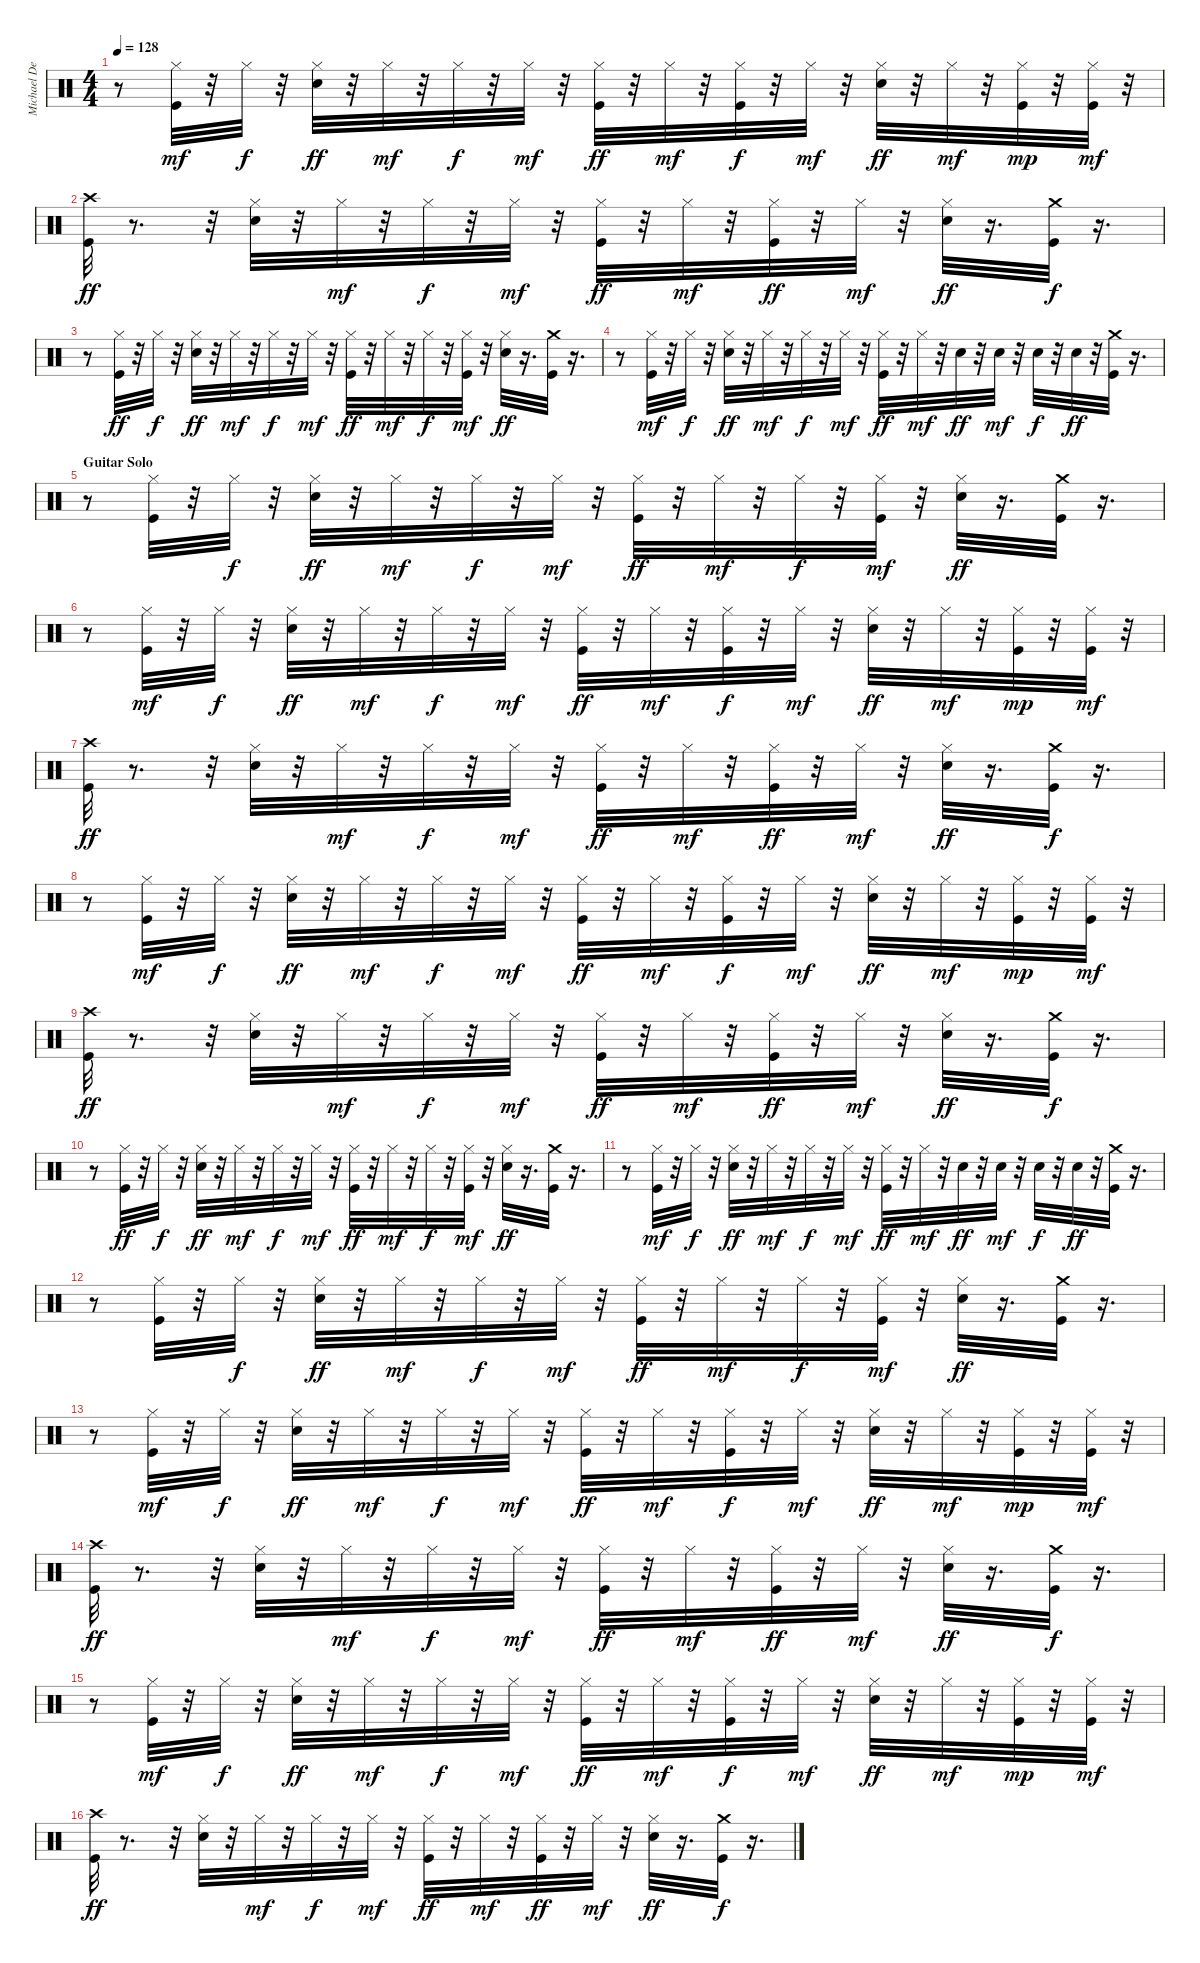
\track ("Michael DeRosier" "Michael De") {instrument percussion}
\staff {score}
\articulation defaults
\ts (4 4)
\tempo 128
\clef neutral
\ks c
r.8{dy f} ("Hi-Hat (closed)" "Kick (hit)").32{dy mf} r.32 "Hi-Hat (closed)".32{dy f} r.32 ("Snare (hit) 2" "Hi-Hat (closed)").32{dy ff} r.32 "Hi-Hat (closed)".32{dy mf} r.32 "Hi-Hat (closed)".32{dy f} r.32 "Hi-Hat (closed)".32{dy mf} r.32 ("Kick (hit)" "Hi-Hat (closed)").32{dy ff} r.32 "Hi-Hat (closed)".32{dy mf} r.32 ("Hi-Hat (closed)" "Kick (hit)").32{dy f} r.32 "Hi-Hat (closed)".32{dy mf} r.32 ("Snare (hit) 2" "Hi-Hat (closed)").32{dy ff} r.32 "Hi-Hat (closed)".32{dy mf} r.32 ("Kick (hit)" "Hi-Hat (closed)").32{dy mp} r.32 ("Hi-Hat (closed)" "Kick (hit)").32{dy mf} r.32 |
("Kick (hit)" "Crash high (hit)").32{dy ff} r.8{d} r.32 ("Snare (hit) 2" "Hi-Hat (closed)").32 r.32 "Hi-Hat (closed)".32{dy mf} r.32 "Hi-Hat (closed)".32{dy f} r.32 "Hi-Hat (closed)".32{dy mf} r.32 ("Hi-Hat (closed)" "Kick (hit)").32{dy ff} r.32 "Hi-Hat (closed)".32{dy mf} r.32 ("Hi-Hat (closed)" "Kick (hit)").32{dy ff} r.32 "Hi-Hat (closed)".32{dy mf} r.32 ("Snare (hit) 2" "Hi-Hat (closed)").32{dy ff} r.16{d} ("Kick (hit)" "Crash medium (hit)").32{dy f} r.16{d} |
r.8 ("Hi-Hat (closed)" "Kick (hit)").32{dy ff} r.32 "Hi-Hat (closed)".32{dy f} r.32 ("Snare (hit) 2" "Hi-Hat (closed)").32{dy ff} r.32 "Hi-Hat (closed)".32{dy mf} r.32 "Hi-Hat (closed)".32{dy f} r.32 "Hi-Hat (closed)".32{dy mf} r.32 ("Hi-Hat (closed)" "Kick (hit)").32{dy ff} r.32 "Hi-Hat (closed)".32{dy mf} r.32 "Hi-Hat (closed)".32{dy f} r.32 ("Kick (hit)" "Hi-Hat (closed)").32{dy mf} r.32 ("Snare (hit) 2" "Hi-Hat (closed)").32{dy ff} r.16{d} ("Kick (hit)" "Crash medium (hit)").32 r.16{d} |
r.8 ("Hi-Hat (closed)" "Kick (hit)").32{dy mf} r.32 "Hi-Hat (closed)".32{dy f} r.32 ("Snare (hit) 2" "Hi-Hat (closed)").32{dy ff} r.32 "Hi-Hat (closed)".32{dy mf} r.32 "Hi-Hat (closed)".32{dy f} r.32 "Hi-Hat (closed)".32{dy mf} r.32 ("Kick (hit)" "Hi-Hat (closed)").32{dy ff} r.32 "Hi-Hat (closed)".32{dy mf} r.32 "Snare (hit) 2".32{dy ff} r.32 "Snare (hit) 2".32{dy mf} r.32 "Snare (hit) 2".32{dy f} r.32 "Snare (hit) 2".32{dy ff} r.32 ("Kick (hit)" "Crash medium (hit)").32 r.16{d} |
\section ("" "Guitar Solo")
r.8 ("Hi-Hat (closed)" "Kick (hit)").32 r.32 "Hi-Hat (closed)".32{dy f} r.32 ("Snare (hit) 2" "Hi-Hat (closed)").32{dy ff} r.32 "Hi-Hat (closed)".32{dy mf} r.32 "Hi-Hat (closed)".32{dy f} r.32 "Hi-Hat (closed)".32{dy mf} r.32 ("Hi-Hat (closed)" "Kick (hit)").32{dy ff} r.32 "Hi-Hat (closed)".32{dy mf} r.32 "Hi-Hat (closed)".32{dy f} r.32 ("Hi-Hat (closed)" "Kick (hit)").32{dy mf} r.32 ("Snare (hit) 2" "Hi-Hat (closed)").32{dy ff} r.16{d} ("Kick (hit)" "Crash medium (hit)").32 r.16{d} |
r.8 ("Hi-Hat (closed)" "Kick (hit)").32{dy mf} r.32 "Hi-Hat (closed)".32{dy f} r.32 ("Snare (hit) 2" "Hi-Hat (closed)").32{dy ff} r.32 "Hi-Hat (closed)".32{dy mf} r.32 "Hi-Hat (closed)".32{dy f} r.32 "Hi-Hat (closed)".32{dy mf} r.32 ("Hi-Hat (closed)" "Kick (hit)").32{dy ff} r.32 "Hi-Hat (closed)".32{dy mf} r.32 ("Hi-Hat (closed)" "Kick (hit)").32{dy f} r.32 "Hi-Hat (closed)".32{dy mf} r.32 ("Snare (hit) 2" "Hi-Hat (closed)").32{dy ff} r.32 "Hi-Hat (closed)".32{dy mf} r.32 ("Kick (hit)" "Hi-Hat (closed)").32{dy mp} r.32 ("Hi-Hat (closed)" "Kick (hit)").32{dy mf} r.32 |
("Kick (hit)" "Crash high (hit)").32{dy ff} r.8{d} r.32 ("Snare (hit) 2" "Hi-Hat (closed)").32 r.32 "Hi-Hat (closed)".32{dy mf} r.32 "Hi-Hat (closed)".32{dy f} r.32 "Hi-Hat (closed)".32{dy mf} r.32 ("Hi-Hat (closed)" "Kick (hit)").32{dy ff} r.32 "Hi-Hat (closed)".32{dy mf} r.32 ("Hi-Hat (closed)" "Kick (hit)").32{dy ff} r.32 "Hi-Hat (closed)".32{dy mf} r.32 ("Snare (hit) 2" "Hi-Hat (closed)").32{dy ff} r.16{d} ("Kick (hit)" "Crash medium (hit)").32{dy f} r.16{d} |
r.8 ("Hi-Hat (closed)" "Kick (hit)").32{dy mf} r.32 "Hi-Hat (closed)".32{dy f} r.32 ("Snare (hit) 2" "Hi-Hat (closed)").32{dy ff} r.32 "Hi-Hat (closed)".32{dy mf} r.32 "Hi-Hat (closed)".32{dy f} r.32 "Hi-Hat (closed)".32{dy mf} r.32 ("Hi-Hat (closed)" "Kick (hit)").32{dy ff} r.32 "Hi-Hat (closed)".32{dy mf} r.32 ("Hi-Hat (closed)" "Kick (hit)").32{dy f} r.32 "Hi-Hat (closed)".32{dy mf} r.32 ("Snare (hit) 2" "Hi-Hat (closed)").32{dy ff} r.32 "Hi-Hat (closed)".32{dy mf} r.32 ("Hi-Hat (closed)" "Kick (hit)").32{dy mp} r.32 ("Hi-Hat (closed)" "Kick (hit)").32{dy mf} r.32 |
("Kick (hit)" "Crash high (hit)").32{dy ff} r.8{d} r.32 ("Snare (hit) 2" "Hi-Hat (closed)").32 r.32 "Hi-Hat (closed)".32{dy mf} r.32 "Hi-Hat (closed)".32{dy f} r.32 "Hi-Hat (closed)".32{dy mf} r.32 ("Kick (hit)" "Hi-Hat (closed)").32{dy ff} r.32 "Hi-Hat (closed)".32{dy mf} r.32 ("Hi-Hat (closed)" "Kick (hit)").32{dy ff} r.32 "Hi-Hat (closed)".32{dy mf} r.32 ("Snare (hit) 2" "Hi-Hat (closed)").32{dy ff} r.16{d} ("Kick (hit)" "Crash medium (hit)").32{dy f} r.16{d} |
r.8 ("Hi-Hat (closed)" "Kick (hit)").32{dy ff} r.32 "Hi-Hat (closed)".32{dy f} r.32 ("Snare (hit) 2" "Hi-Hat (closed)").32{dy ff} r.32 "Hi-Hat (closed)".32{dy mf} r.32 "Hi-Hat (closed)".32{dy f} r.32 "Hi-Hat (closed)".32{dy mf} r.32 ("Hi-Hat (closed)" "Kick (hit)").32{dy ff} r.32 "Hi-Hat (closed)".32{dy mf} r.32 "Hi-Hat (closed)".32{dy f} r.32 ("Hi-Hat (closed)" "Kick (hit)").32{dy mf} r.32 ("Snare (hit) 2" "Hi-Hat (closed)").32{dy ff} r.16{d} ("Kick (hit)" "Crash medium (hit)").32 r.16{d} |
r.8 ("Hi-Hat (closed)" "Kick (hit)").32{dy mf} r.32 "Hi-Hat (closed)".32{dy f} r.32 ("Snare (hit) 2" "Hi-Hat (closed)").32{dy ff} r.32 "Hi-Hat (closed)".32{dy mf} r.32 "Hi-Hat (closed)".32{dy f} r.32 "Hi-Hat (closed)".32{dy mf} r.32 ("Kick (hit)" "Hi-Hat (closed)").32{dy ff} r.32 "Hi-Hat (closed)".32{dy mf} r.32 "Snare (hit) 2".32{dy ff} r.32 "Snare (hit) 2".32{dy mf} r.32 "Snare (hit) 2".32{dy f} r.32 "Snare (hit) 2".32{dy ff} r.32 ("Kick (hit)" "Crash medium (hit)").32 r.16{d} |
r.8 ("Hi-Hat (closed)" "Kick (hit)").32 r.32 "Hi-Hat (closed)".32{dy f} r.32 ("Snare (hit) 2" "Hi-Hat (closed)").32{dy ff} r.32 "Hi-Hat (closed)".32{dy mf} r.32 "Hi-Hat (closed)".32{dy f} r.32 "Hi-Hat (closed)".32{dy mf} r.32 ("Hi-Hat (closed)" "Kick (hit)").32{dy ff} r.32 "Hi-Hat (closed)".32{dy mf} r.32 "Hi-Hat (closed)".32{dy f} r.32 ("Hi-Hat (closed)" "Kick (hit)").32{dy mf} r.32 ("Snare (hit) 2" "Hi-Hat (closed)").32{dy ff} r.16{d} ("Kick (hit)" "Crash medium (hit)").32 r.16{d} |
r.8 ("Hi-Hat (closed)" "Kick (hit)").32{dy mf} r.32 "Hi-Hat (closed)".32{dy f} r.32 ("Snare (hit) 2" "Hi-Hat (closed)").32{dy ff} r.32 "Hi-Hat (closed)".32{dy mf} r.32 "Hi-Hat (closed)".32{dy f} r.32 "Hi-Hat (closed)".32{dy mf} r.32 ("Hi-Hat (closed)" "Kick (hit)").32{dy ff} r.32 "Hi-Hat (closed)".32{dy mf} r.32 ("Hi-Hat (closed)" "Kick (hit)").32{dy f} r.32 "Hi-Hat (closed)".32{dy mf} r.32 ("Snare (hit) 2" "Hi-Hat (closed)").32{dy ff} r.32 "Hi-Hat (closed)".32{dy mf} r.32 ("Hi-Hat (closed)" "Kick (hit)").32{dy mp} r.32 ("Hi-Hat (closed)" "Kick (hit)").32{dy mf} r.32 |
("Kick (hit)" "Crash high (hit)").32{dy ff} r.8{d} r.32 ("Snare (hit) 2" "Hi-Hat (closed)").32 r.32 "Hi-Hat (closed)".32{dy mf} r.32 "Hi-Hat (closed)".32{dy f} r.32 "Hi-Hat (closed)".32{dy mf} r.32 ("Hi-Hat (closed)" "Kick (hit)").32{dy ff} r.32 "Hi-Hat (closed)".32{dy mf} r.32 ("Hi-Hat (closed)" "Kick (hit)").32{dy ff} r.32 "Hi-Hat (closed)".32{dy mf} r.32 ("Snare (hit) 2" "Hi-Hat (closed)").32{dy ff} r.16{d} ("Kick (hit)" "Crash medium (hit)").32{dy f} r.16{d} |
r.8 ("Hi-Hat (closed)" "Kick (hit)").32{dy mf} r.32 "Hi-Hat (closed)".32{dy f} r.32 ("Snare (hit) 2" "Hi-Hat (closed)").32{dy ff} r.32 "Hi-Hat (closed)".32{dy mf} r.32 "Hi-Hat (closed)".32{dy f} r.32 "Hi-Hat (closed)".32{dy mf} r.32 ("Hi-Hat (closed)" "Kick (hit)").32{dy ff} r.32 "Hi-Hat (closed)".32{dy mf} r.32 ("Hi-Hat (closed)" "Kick (hit)").32{dy f} r.32 "Hi-Hat (closed)".32{dy mf} r.32 ("Snare (hit) 2" "Hi-Hat (closed)").32{dy ff} r.32 "Hi-Hat (closed)".32{dy mf} r.32 ("Hi-Hat (closed)" "Kick (hit)").32{dy mp} r.32 ("Hi-Hat (closed)" "Kick (hit)").32{dy mf} r.32 |
("Kick (hit)" "Crash high (hit)").32{dy ff} r.8{d} r.32 ("Snare (hit) 2" "Hi-Hat (closed)").32 r.32 "Hi-Hat (closed)".32{dy mf} r.32 "Hi-Hat (closed)".32{dy f} r.32 "Hi-Hat (closed)".32{dy mf} r.32 ("Hi-Hat (closed)" "Kick (hit)").32{dy ff} r.32 "Hi-Hat (closed)".32{dy mf} r.32 ("Hi-Hat (closed)" "Kick (hit)").32{dy ff} r.32 "Hi-Hat (closed)".32{dy mf} r.32 ("Snare (hit) 2" "Hi-Hat (closed)").32{dy ff} r.16{d} ("Kick (hit)" "Crash medium (hit)").32{dy f} r.16{d}
